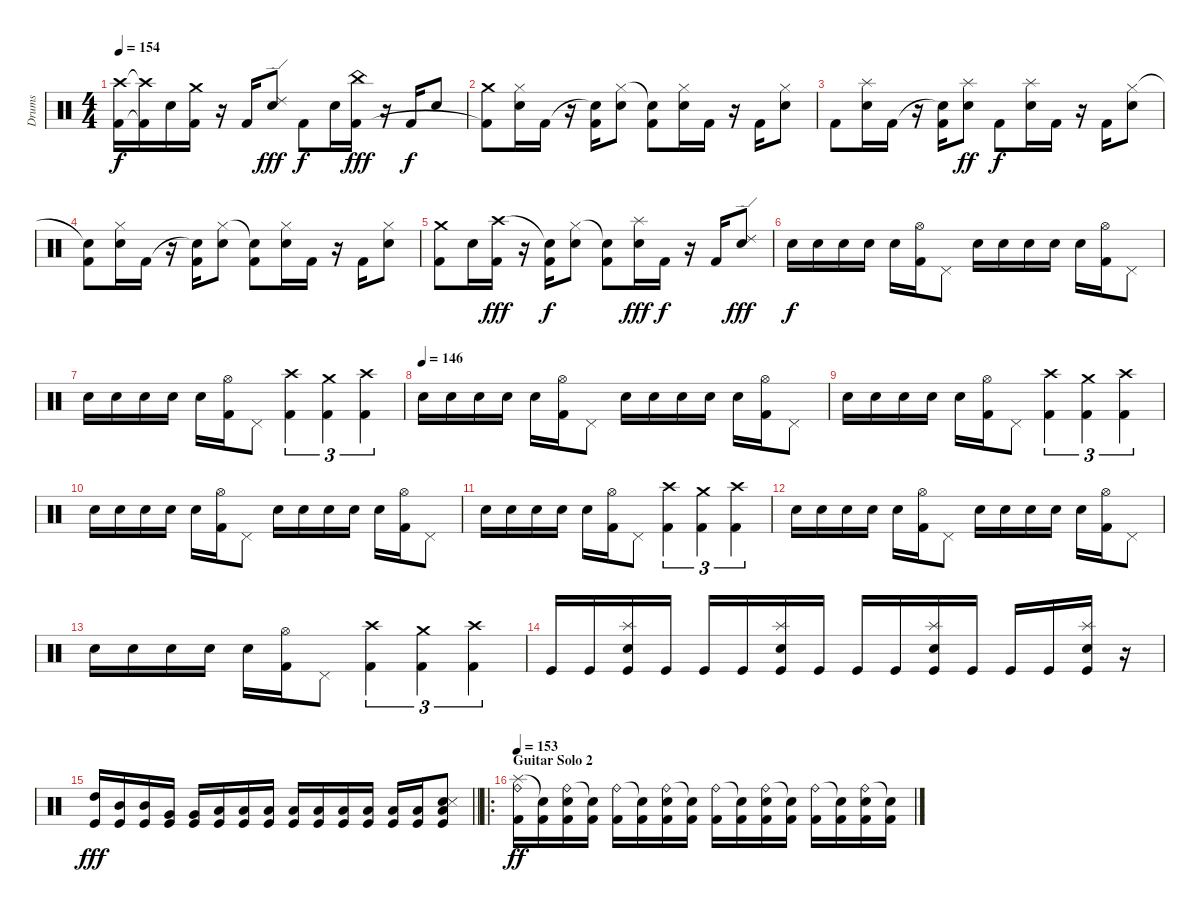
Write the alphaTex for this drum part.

\track ("Drums" "Drums") {instrument percussion}
\staff {score}
\articulation defaults
\ts (4 4)
\tempo 154
\clef neutral
\ks c
("Crash high (hit)" "Kick (hit) 2").16{dy f} ("Crash high (hit)"{t} "Kick (hit) 2"{t}).16 "Electric Snare (hit)".16 ("Crash medium (hit)" "Kick (hit) 2").16 r.16 "Kick (hit) 2".16 ("Ride (edge) 2" "Electric Snare (hit)").8{dy fff} "Kick (hit) 2".8{dy f} "Electric Snare (hit)".16 ("China (hit)" "Kick (hit) 2").16{dy fff} r.16 "Kick (hit) 2".16{dy f} "Electric Snare (hit)".8 |
("Crash medium (hit)" "Kick (hit) 2"{t}).8 ("Hi-Hat (closed)" "Electric Snare (hit)").16 "Kick (hit) 2".16 r.16 ("Snare (hit)"{t} "Kick (hit) 2").16 ("Hi-Hat (closed)" "Electric Snare (hit)").8 ("Snare (hit)"{t} "Kick (hit) 2").8 ("Hi-Hat (closed)" "Electric Snare (hit)").16 "Kick (hit) 2".16 r.16 "Kick (hit) 2".16 ("Hi-Hat (closed)" "Electric Snare (hit)").8 |
"Kick (hit) 2".8 ("Splash (hit)" "Electric Snare (hit)").16 "Kick (hit) 2".16 r.16 ("Snare (hit)"{t} "Kick (hit) 2").16 ("Splash (hit)" "Electric Snare (hit)").8{dy ff} "Kick (hit) 2".8{dy f} ("Splash (hit)" "Electric Snare (hit)").16 "Kick (hit) 2".16 r.16 "Kick (hit) 2".16 ("Hi-Hat (closed)" "Electric Snare (hit)").8 |
("Snare (hit)"{t} "Kick (hit) 2").8 ("Hi-Hat (closed)" "Electric Snare (hit)").16 "Kick (hit) 2".16 r.16 ("Snare (hit)"{t} "Kick (hit) 2").16 ("Hi-Hat (closed)" "Electric Snare (hit)").8 ("Snare (hit)"{t} "Kick (hit) 2").8 ("Hi-Hat (closed)" "Electric Snare (hit)").16 "Kick (hit) 2".16 r.16 "Kick (hit) 2".16 ("Hi-Hat (closed)" "Electric Snare (hit)").8 |
("Crash medium (hit)" "Kick (hit) 2").8 "Electric Snare (hit)".16 ("Crash high (hit)" "Kick (hit) 2").16{dy fff} r.16 ("Snare (hit)"{t} "Kick (hit) 2").16{dy f} ("Hi-Hat (closed)" "Electric Snare (hit)").8 ("Snare (hit)"{t} "Kick (hit) 2").8 ("Splash (hit)" "Electric Snare (hit)").16{dy fff} "Kick (hit) 2".16{dy f} r.16 "Kick (hit) 2".16 ("Ride (edge) 2" "Electric Snare (hit)").8{dy fff} |
"Electric Snare (hit)".16{dy f} "Electric Snare (hit)".16 "Electric Snare (hit)".16 "Electric Snare (hit)".16 "Electric Snare (hit)".16 ("Hi-Hat (open)" "Kick (hit) 2").16 "Pedal Hi-Hat (hit)".8 "Electric Snare (hit)".16 "Electric Snare (hit)".16 "Electric Snare (hit)".16 "Electric Snare (hit)".16 "Electric Snare (hit)".16 ("Hi-Hat (open)" "Kick (hit) 2").16 "Pedal Hi-Hat (hit)".8 |
"Electric Snare (hit)".16 "Electric Snare (hit)".16 "Electric Snare (hit)".16 "Electric Snare (hit)".16 "Electric Snare (hit)".16 ("Hi-Hat (open)" "Kick (hit) 2").16 "Pedal Hi-Hat (hit)".8 ("Crash high (hit)" "Kick (hit) 2").4{tu (3 2)} ("Crash medium (hit)" "Kick (hit) 2").4{tu (3 2)} ("Crash high (hit)" "Kick (hit) 2").4{tu (3 2)} |
\tempo (146)
"Electric Snare (hit)".16 "Electric Snare (hit)".16 "Electric Snare (hit)".16 "Electric Snare (hit)".16 "Electric Snare (hit)".16 ("Hi-Hat (open)" "Kick (hit) 2").16 "Pedal Hi-Hat (hit)".8 "Electric Snare (hit)".16 "Electric Snare (hit)".16 "Electric Snare (hit)".16 "Electric Snare (hit)".16 "Electric Snare (hit)".16 ("Hi-Hat (open)" "Kick (hit) 2").16 "Pedal Hi-Hat (hit)".8 |
"Electric Snare (hit)".16 "Electric Snare (hit)".16 "Electric Snare (hit)".16 "Electric Snare (hit)".16 "Electric Snare (hit)".16 ("Hi-Hat (open)" "Kick (hit) 2").16 "Pedal Hi-Hat (hit)".8 ("Crash high (hit)" "Kick (hit) 2").4{tu (3 2)} ("Crash medium (hit)" "Kick (hit) 2").4{tu (3 2)} ("Crash high (hit)" "Kick (hit) 2").4{tu (3 2)} |
"Electric Snare (hit)".16 "Electric Snare (hit)".16 "Electric Snare (hit)".16 "Electric Snare (hit)".16 "Electric Snare (hit)".16 ("Hi-Hat (open)" "Kick (hit) 2").16 "Pedal Hi-Hat (hit)".8 "Electric Snare (hit)".16 "Electric Snare (hit)".16 "Electric Snare (hit)".16 "Electric Snare (hit)".16 "Electric Snare (hit)".16 ("Hi-Hat (open)" "Kick (hit) 2").16 "Pedal Hi-Hat (hit)".8 |
"Electric Snare (hit)".16 "Electric Snare (hit)".16 "Electric Snare (hit)".16 "Electric Snare (hit)".16 "Electric Snare (hit)".16 ("Hi-Hat (open)" "Kick (hit) 2").16 "Pedal Hi-Hat (hit)".8 ("Crash high (hit)" "Kick (hit) 2").4{tu (3 2)} ("Crash medium (hit)" "Kick (hit) 2").4{tu (3 2)} ("Crash high (hit)" "Kick (hit) 2").4{tu (3 2)} |
"Electric Snare (hit)".16 "Electric Snare (hit)".16 "Electric Snare (hit)".16 "Electric Snare (hit)".16 "Electric Snare (hit)".16 ("Hi-Hat (open)" "Kick (hit) 2").16 "Pedal Hi-Hat (hit)".8 "Electric Snare (hit)".16 "Electric Snare (hit)".16 "Electric Snare (hit)".16 "Electric Snare (hit)".16 "Electric Snare (hit)".16 ("Hi-Hat (open)" "Kick (hit) 2").16 "Pedal Hi-Hat (hit)".8 |
"Electric Snare (hit)".16 "Electric Snare (hit)".16 "Electric Snare (hit)".16 "Electric Snare (hit)".16 "Electric Snare (hit)".16 ("Hi-Hat (open)" "Kick (hit) 2").16 "Pedal Hi-Hat (hit)".8 ("Crash high (hit)" "Kick (hit) 2").4{tu (3 2)} ("Crash medium (hit)" "Kick (hit) 2").4{tu (3 2)} ("Crash high (hit)" "Kick (hit) 2").4{tu (3 2)} |
"Kick (hit)".16 "Kick (hit)".16 ("Splash (hit)" "Electric Snare (hit)" "Kick (hit)").16 "Kick (hit)".16 "Kick (hit)".16 "Kick (hit)".16 ("Splash (hit)" "Electric Snare (hit)" "Kick (hit)").16 "Kick (hit)".16 "Kick (hit)".16 "Kick (hit)".16 ("Splash (hit)" "Electric Snare (hit)" "Kick (hit)").16 "Kick (hit)".16 "Kick (hit)".16 "Kick (hit)".16 ("Splash (hit)" "Electric Snare (hit)" "Kick (hit)").16 r.16 |
\barLineRight lightlight
("High Tom (hit)" "Kick (hit)").16{dy fff} ("Mid Tom (hit)" "Kick (hit)").16 ("Mid Tom (hit)" "Kick (hit)").16 ("Very Low Tom (hit)" "Kick (hit)").16 ("Very Low Tom (hit)" "Kick (hit)").16 ("Low Floor Tom (hit)" "Kick (hit)").16 ("Low Floor Tom (hit)" "Kick (hit)").16 ("Low Floor Tom (hit)" "Kick (hit)").16 ("Low Floor Tom (hit)" "Kick (hit)").16 ("Low Tom (hit)" "Kick (hit)").16 ("Low Floor Tom (hit)" "Kick (hit)").16 ("Low Floor Tom (hit)" "Kick (hit)").16 ("Low Floor Tom (hit)" "Kick (hit)").16 ("Low Floor Tom (hit)" "Kick (hit)").16 ("Low Tom (hit)" "Electric Snare (hit)" "Metronome (hit)" "Kick (hit)").8 |
\ro
\section ("" "Guitar Solo 2")
\tempo 153
("Splash (hit)" "Ride (bell)" "Kick (hit) 2").16{dy ff} ("Snare (hit)"{t} "Kick (hit) 2").16 ("Ride (bell)" "Electric Snare (hit)" "Kick (hit) 2").16 ("Snare (hit)"{t} "Kick (hit) 2").16 ("Ride (bell)" "Kick (hit) 2").16 ("Snare (hit)"{t} "Kick (hit) 2").16 ("Ride (bell)" "Electric Snare (hit)" "Kick (hit) 2").16 ("Snare (hit)"{t} "Kick (hit) 2").16 ("Ride (bell)" "Kick (hit) 2").16 ("Snare (hit)"{t} "Kick (hit) 2").16 ("Ride (bell)" "Electric Snare (hit)" "Kick (hit) 2").16 ("Snare (hit)"{t} "Kick (hit) 2").16 ("Ride (bell)" "Kick (hit) 2").16 ("Snare (hit)"{t} "Kick (hit) 2").16 ("Ride (bell)" "Electric Snare (hit)" "Kick (hit) 2").16 ("Snare (hit)"{t} "Kick (hit) 2").16
